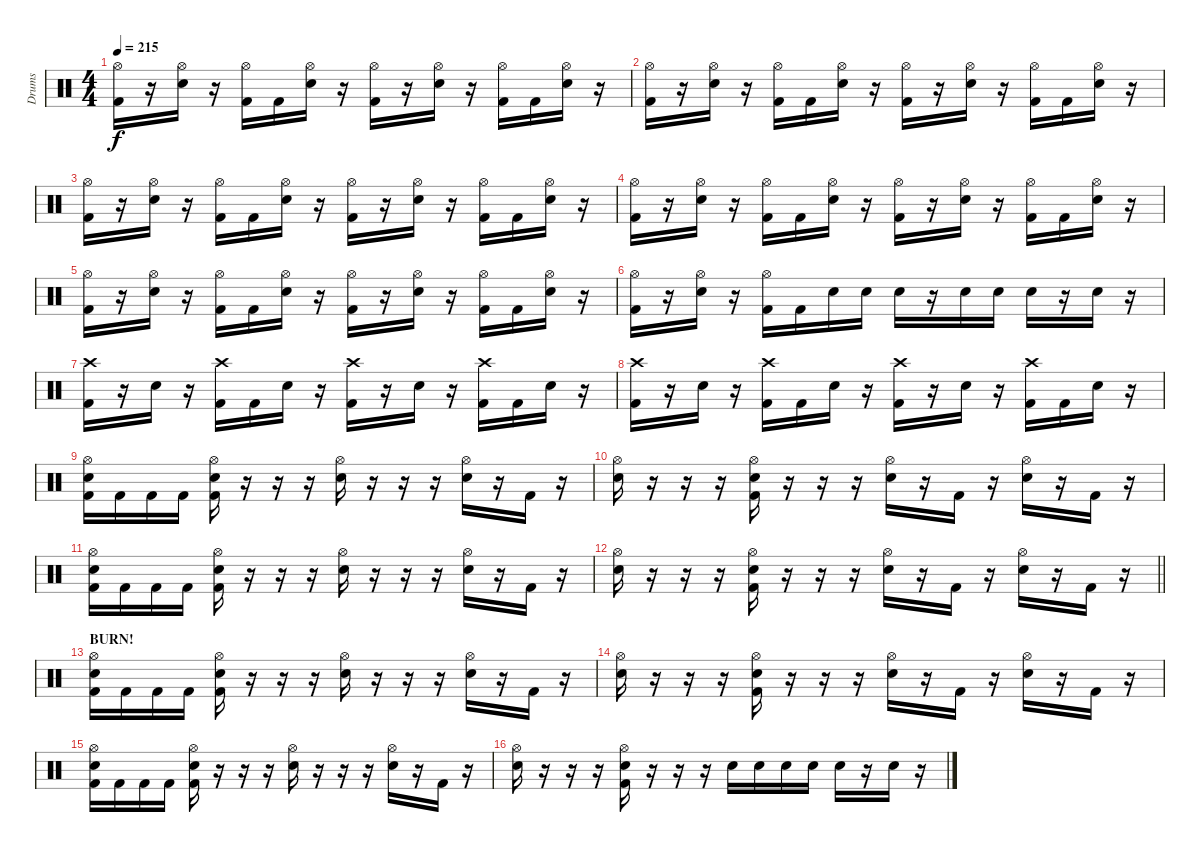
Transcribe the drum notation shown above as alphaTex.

\track ("Drums" "Drums") {instrument percussion}
\staff {score}
\articulation defaults
\ts (4 4)
\tempo 215
\clef neutral
\ks c
("Hi-Hat (open)" "Kick (hit) 2").16{dy f} r.16 ("Hi-Hat (open)" "Snare (hit) 2").16 r.16 ("Hi-Hat (open)" "Kick (hit) 2").16 "Kick (hit) 2".16 ("Hi-Hat (open)" "Snare (hit) 2").16 r.16 ("Hi-Hat (open)" "Kick (hit) 2").16 r.16 ("Hi-Hat (open)" "Snare (hit) 2").16 r.16 ("Hi-Hat (open)" "Kick (hit) 2").16 "Kick (hit) 2".16 ("Hi-Hat (open)" "Snare (hit) 2").16 r.16 |
("Hi-Hat (open)" "Kick (hit) 2").16 r.16 ("Hi-Hat (open)" "Snare (hit) 2").16 r.16 ("Hi-Hat (open)" "Kick (hit) 2").16 "Kick (hit) 2".16 ("Hi-Hat (open)" "Snare (hit) 2").16 r.16 ("Hi-Hat (open)" "Kick (hit) 2").16 r.16 ("Hi-Hat (open)" "Snare (hit) 2").16 r.16 ("Hi-Hat (open)" "Kick (hit) 2").16 "Kick (hit) 2".16 ("Hi-Hat (open)" "Snare (hit) 2").16 r.16 |
("Hi-Hat (open)" "Kick (hit) 2").16 r.16 ("Hi-Hat (open)" "Snare (hit) 2").16 r.16 ("Hi-Hat (open)" "Kick (hit) 2").16 "Kick (hit) 2".16 ("Hi-Hat (open)" "Snare (hit) 2").16 r.16 ("Hi-Hat (open)" "Kick (hit) 2").16 r.16 ("Hi-Hat (open)" "Snare (hit) 2").16 r.16 ("Hi-Hat (open)" "Kick (hit) 2").16 "Kick (hit) 2".16 ("Hi-Hat (open)" "Snare (hit) 2").16 r.16 |
("Hi-Hat (open)" "Kick (hit) 2").16 r.16 ("Hi-Hat (open)" "Snare (hit) 2").16 r.16 ("Hi-Hat (open)" "Kick (hit) 2").16 "Kick (hit) 2".16 ("Hi-Hat (open)" "Snare (hit) 2").16 r.16 ("Hi-Hat (open)" "Kick (hit) 2").16 r.16 ("Hi-Hat (open)" "Snare (hit) 2").16 r.16 ("Hi-Hat (open)" "Kick (hit) 2").16 "Kick (hit) 2".16 ("Hi-Hat (open)" "Snare (hit) 2").16 r.16 |
("Hi-Hat (open)" "Kick (hit) 2").16 r.16 ("Hi-Hat (open)" "Snare (hit) 2").16 r.16 ("Hi-Hat (open)" "Kick (hit) 2").16 "Kick (hit) 2".16 ("Hi-Hat (open)" "Snare (hit) 2").16 r.16 ("Hi-Hat (open)" "Kick (hit) 2").16 r.16 ("Hi-Hat (open)" "Snare (hit) 2").16 r.16 ("Hi-Hat (open)" "Kick (hit) 2").16 "Kick (hit) 2".16 ("Hi-Hat (open)" "Snare (hit) 2").16 r.16 |
("Hi-Hat (open)" "Kick (hit) 2").16 r.16 ("Hi-Hat (open)" "Snare (hit) 2").16 r.16 ("Hi-Hat (open)" "Kick (hit) 2").16 "Kick (hit) 2".16 "Snare (hit) 2".16 "Snare (hit) 2".16 "Snare (hit) 2".16 r.16 "Snare (hit) 2".16 "Snare (hit) 2".16 "Snare (hit) 2".16 r.16 "Snare (hit) 2".16 r.16 |
("Crash high (hit)" "Kick (hit) 2").16 r.16 "Snare (hit) 2".16 r.16 ("Crash high (hit)" "Kick (hit) 2").16 "Kick (hit) 2".16 "Snare (hit) 2".16 r.16 ("Crash high (hit)" "Kick (hit) 2").16 r.16 "Snare (hit) 2".16 r.16 ("Crash high (hit)" "Kick (hit) 2").16 "Kick (hit) 2".16 "Snare (hit) 2".16 r.16 |
("Crash high (hit)" "Kick (hit) 2").16 r.16 "Snare (hit) 2".16 r.16 ("Crash high (hit)" "Kick (hit) 2").16 "Kick (hit) 2".16 "Snare (hit) 2".16 r.16 ("Crash high (hit)" "Kick (hit) 2").16 r.16 "Snare (hit) 2".16 r.16 ("Crash high (hit)" "Kick (hit) 2").16 "Kick (hit) 2".16 "Snare (hit) 2".16 r.16 |
("Hi-Hat (open)" "Snare (hit) 2" "Kick (hit) 2").16 "Kick (hit) 2".16 "Kick (hit) 2".16 "Kick (hit) 2".16 ("Hi-Hat (open)" "Snare (hit) 2" "Kick (hit) 2").16 r.16 r.16 r.16 ("Hi-Hat (open)" "Snare (hit) 2").16 r.16 r.16 r.16 ("Hi-Hat (open)" "Snare (hit) 2").16 r.16 "Kick (hit) 2".16 r.16 |
("Hi-Hat (open)" "Snare (hit) 2").16 r.16 r.16 r.16 ("Hi-Hat (open)" "Snare (hit) 2" "Kick (hit) 2").16 r.16 r.16 r.16 ("Hi-Hat (open)" "Snare (hit) 2").16 r.16 "Kick (hit) 2".16 r.16 ("Hi-Hat (open)" "Snare (hit) 2").16 r.16 "Kick (hit) 2".16 r.16 |
("Hi-Hat (open)" "Snare (hit) 2" "Kick (hit) 2").16 "Kick (hit) 2".16 "Kick (hit) 2".16 "Kick (hit) 2".16 ("Hi-Hat (open)" "Snare (hit) 2" "Kick (hit) 2").16 r.16 r.16 r.16 ("Hi-Hat (open)" "Snare (hit) 2").16 r.16 r.16 r.16 ("Hi-Hat (open)" "Snare (hit) 2").16 r.16 "Kick (hit) 2".16 r.16 |
\barLineRight lightlight
("Hi-Hat (open)" "Snare (hit) 2").16 r.16 r.16 r.16 ("Hi-Hat (open)" "Snare (hit) 2" "Kick (hit) 2").16 r.16 r.16 r.16 ("Hi-Hat (open)" "Snare (hit) 2").16 r.16 "Kick (hit) 2".16 r.16 ("Hi-Hat (open)" "Snare (hit) 2").16 r.16 "Kick (hit) 2".16 r.16 |
\section ("" "BURN!")
("Hi-Hat (open)" "Snare (hit) 2" "Kick (hit) 2").16 "Kick (hit) 2".16 "Kick (hit) 2".16 "Kick (hit) 2".16 ("Hi-Hat (open)" "Snare (hit) 2" "Kick (hit) 2").16 r.16 r.16 r.16 ("Hi-Hat (open)" "Snare (hit) 2").16 r.16 r.16 r.16 ("Hi-Hat (open)" "Snare (hit) 2").16 r.16 "Kick (hit) 2".16 r.16 |
("Hi-Hat (open)" "Snare (hit) 2").16 r.16 r.16 r.16 ("Hi-Hat (open)" "Snare (hit) 2" "Kick (hit) 2").16 r.16 r.16 r.16 ("Hi-Hat (open)" "Snare (hit) 2").16 r.16 "Kick (hit) 2".16 r.16 ("Hi-Hat (open)" "Snare (hit) 2").16 r.16 "Kick (hit) 2".16 r.16 |
("Hi-Hat (open)" "Snare (hit) 2" "Kick (hit) 2").16 "Kick (hit) 2".16 "Kick (hit) 2".16 "Kick (hit) 2".16 ("Hi-Hat (open)" "Snare (hit) 2" "Kick (hit) 2").16 r.16 r.16 r.16 ("Hi-Hat (open)" "Snare (hit) 2").16 r.16 r.16 r.16 ("Hi-Hat (open)" "Snare (hit) 2").16 r.16 "Kick (hit) 2".16 r.16 |
("Hi-Hat (open)" "Snare (hit) 2").16 r.16 r.16 r.16 ("Hi-Hat (open)" "Snare (hit) 2" "Kick (hit) 2").16 r.16 r.16 r.16 "Snare (hit) 2".16 "Snare (hit) 2".16 "Snare (hit) 2".16 "Snare (hit) 2".16 "Snare (hit) 2".16 r.16 "Snare (hit) 2".16 r.16
